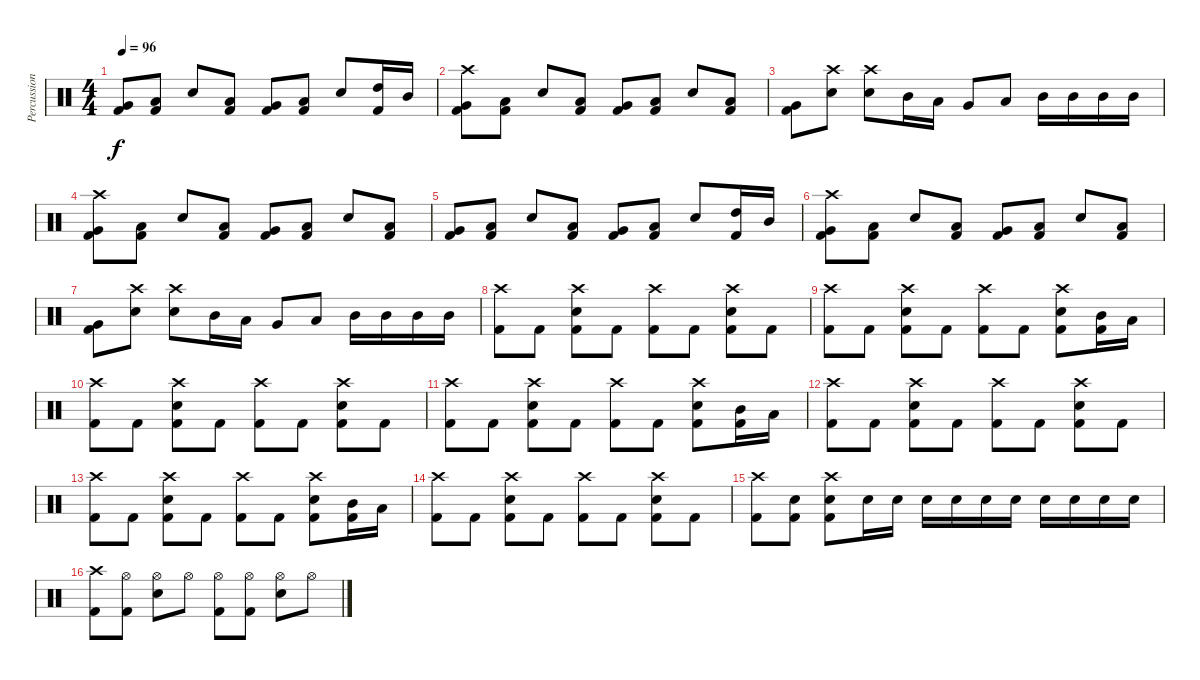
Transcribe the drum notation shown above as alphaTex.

\track ("Percussion" "Percussion") {instrument percussion}
\staff {score}
\articulation defaults
\ts (4 4)
\tempo 96
\clef neutral
\ks c
("Very Low Tom (hit)" "Kick (hit) 2").8{dy f} ("Low Floor Tom (hit)" "Kick (hit) 2").8 "Electric Snare (hit)".8 ("Low Floor Tom (hit)" "Kick (hit) 2").8 ("Very Low Tom (hit)" "Kick (hit) 2").8 ("Low Floor Tom (hit)" "Kick (hit) 2").8 "Electric Snare (hit)".8 ("High Tom (hit)" "Kick (hit) 2").16 "Mid Tom (hit)".16 |
("Crash high (hit)" "Very Low Tom (hit)" "Kick (hit) 2").8 ("Low Floor Tom (hit)" "Kick (hit) 2").8 "Electric Snare (hit)".8 ("Low Floor Tom (hit)" "Kick (hit) 2").8 ("Very Low Tom (hit)" "Kick (hit) 2").8 ("Low Floor Tom (hit)" "Kick (hit) 2").8 "Electric Snare (hit)".8 ("Low Floor Tom (hit)" "Kick (hit) 2").8 |
("Very Low Tom (hit)" "Kick (hit) 2").8 ("Crash high (hit)" "Electric Snare (hit)").8 ("Crash high (hit)" "Electric Snare (hit)").8 "Mid Tom (hit)".16 "Low Tom (hit)".16 "Very Low Tom (hit)".8 "Low Floor Tom (hit)".8 "Mid Tom (hit)".16 "Mid Tom (hit)".16 "Mid Tom (hit)".16 "Mid Tom (hit)".16 |
("Crash high (hit)" "Very Low Tom (hit)" "Kick (hit) 2").8 ("Low Floor Tom (hit)" "Kick (hit) 2").8 "Electric Snare (hit)".8 ("Low Floor Tom (hit)" "Kick (hit) 2").8 ("Very Low Tom (hit)" "Kick (hit) 2").8 ("Low Floor Tom (hit)" "Kick (hit) 2").8 "Electric Snare (hit)".8 ("Low Floor Tom (hit)" "Kick (hit) 2").8 |
("Very Low Tom (hit)" "Kick (hit) 2").8 ("Low Floor Tom (hit)" "Kick (hit) 2").8 "Electric Snare (hit)".8 ("Low Floor Tom (hit)" "Kick (hit) 2").8 ("Very Low Tom (hit)" "Kick (hit) 2").8 ("Low Floor Tom (hit)" "Kick (hit) 2").8 "Electric Snare (hit)".8 ("High Tom (hit)" "Kick (hit) 2").16 "Mid Tom (hit)".16 |
("Crash high (hit)" "Very Low Tom (hit)" "Kick (hit) 2").8 ("Low Floor Tom (hit)" "Kick (hit) 2").8 "Electric Snare (hit)".8 ("Low Floor Tom (hit)" "Kick (hit) 2").8 ("Very Low Tom (hit)" "Kick (hit) 2").8 ("Low Floor Tom (hit)" "Kick (hit) 2").8 "Electric Snare (hit)".8 ("Low Floor Tom (hit)" "Kick (hit) 2").8 |
("Very Low Tom (hit)" "Kick (hit) 2").8 ("Crash high (hit)" "Electric Snare (hit)").8 ("Crash high (hit)" "Electric Snare (hit)").8 "Mid Tom (hit)".16 "Low Tom (hit)".16 "Very Low Tom (hit)".8 "Low Floor Tom (hit)".8 "Mid Tom (hit)".16 "Mid Tom (hit)".16 "Mid Tom (hit)".16 "Mid Tom (hit)".16 |
("Crash high (hit)" "Kick (hit) 2").8 "Kick (hit) 2".8 ("Crash high (hit)" "Electric Snare (hit)" "Kick (hit) 2").8 "Kick (hit) 2".8 ("Crash high (hit)" "Kick (hit) 2").8 "Kick (hit) 2".8 ("Crash high (hit)" "Electric Snare (hit)" "Kick (hit) 2").8 "Kick (hit) 2".8 |
("Crash high (hit)" "Kick (hit) 2").8 "Kick (hit) 2".8 ("Crash high (hit)" "Electric Snare (hit)" "Kick (hit) 2").8 "Kick (hit) 2".8 ("Crash high (hit)" "Kick (hit) 2").8 "Kick (hit) 2".8 ("Crash high (hit)" "Electric Snare (hit)" "Kick (hit) 2").8 ("Mid Tom (hit)" "Kick (hit) 2").16 "Low Tom (hit)".16 |
("Crash high (hit)" "Kick (hit) 2").8 "Kick (hit) 2".8 ("Crash high (hit)" "Electric Snare (hit)" "Kick (hit) 2").8 "Kick (hit) 2".8 ("Crash high (hit)" "Kick (hit) 2").8 "Kick (hit) 2".8 ("Crash high (hit)" "Electric Snare (hit)" "Kick (hit) 2").8 "Kick (hit) 2".8 |
("Crash high (hit)" "Kick (hit) 2").8 "Kick (hit) 2".8 ("Crash high (hit)" "Electric Snare (hit)" "Kick (hit) 2").8 "Kick (hit) 2".8 ("Crash high (hit)" "Kick (hit) 2").8 "Kick (hit) 2".8 ("Crash high (hit)" "Electric Snare (hit)" "Kick (hit) 2").8 ("Mid Tom (hit)" "Kick (hit) 2").16 "Low Tom (hit)".16 |
("Crash high (hit)" "Kick (hit) 2").8 "Kick (hit) 2".8 ("Crash high (hit)" "Electric Snare (hit)" "Kick (hit) 2").8 "Kick (hit) 2".8 ("Crash high (hit)" "Kick (hit) 2").8 "Kick (hit) 2".8 ("Crash high (hit)" "Electric Snare (hit)" "Kick (hit) 2").8 "Kick (hit) 2".8 |
("Crash high (hit)" "Kick (hit) 2").8 "Kick (hit) 2".8 ("Crash high (hit)" "Electric Snare (hit)" "Kick (hit) 2").8 "Kick (hit) 2".8 ("Crash high (hit)" "Kick (hit) 2").8 "Kick (hit) 2".8 ("Crash high (hit)" "Electric Snare (hit)" "Kick (hit) 2").8 ("Mid Tom (hit)" "Kick (hit) 2").16 "Low Tom (hit)".16 |
("Crash high (hit)" "Kick (hit) 2").8 "Kick (hit) 2".8 ("Crash high (hit)" "Electric Snare (hit)" "Kick (hit) 2").8 "Kick (hit) 2".8 ("Crash high (hit)" "Kick (hit) 2").8 "Kick (hit) 2".8 ("Crash high (hit)" "Electric Snare (hit)" "Kick (hit) 2").8 "Kick (hit) 2".8 |
("Crash high (hit)" "Kick (hit) 2").8 ("Electric Snare (hit)" "Kick (hit) 2").8 ("Crash high (hit)" "Electric Snare (hit)" "Kick (hit) 2").8 "Electric Snare (hit)".16 "Electric Snare (hit)".16 "Electric Snare (hit)".16 "Electric Snare (hit)".16 "Electric Snare (hit)".16 "Electric Snare (hit)".16 "Electric Snare (hit)".16 "Electric Snare (hit)".16 "Electric Snare (hit)".16 "Electric Snare (hit)".16 |
("Crash high (hit)" "Kick (hit) 2").8 ("Hi-Hat (open)" "Kick (hit) 2").8 ("Hi-Hat (open)" "Electric Snare (hit)").8 "Hi-Hat (open)".8 ("Hi-Hat (open)" "Kick (hit) 2").8 ("Hi-Hat (open)" "Kick (hit) 2").8 ("Hi-Hat (open)" "Electric Snare (hit)").8 "Hi-Hat (open)".8
